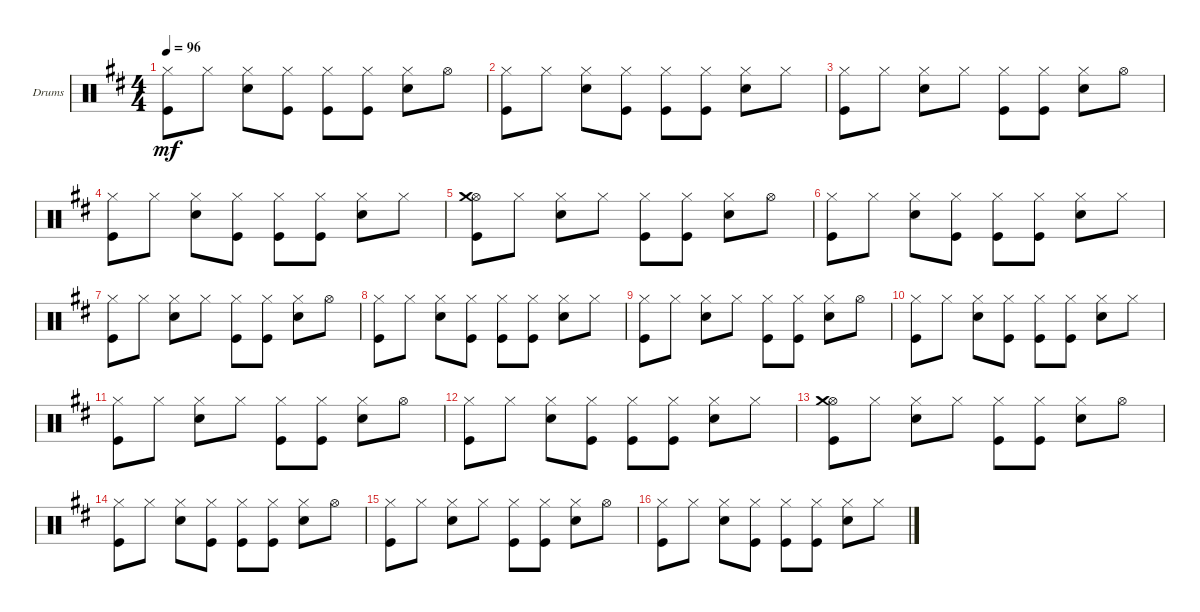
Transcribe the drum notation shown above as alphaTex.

\defaultSystemsLayout 4
\bracketExtendMode groupsimilarinstruments
\firstSystemTrackNameOrientation horizontal
\otherSystemsTrackNameOrientation horizontal
\track ("Drumkit" "Drums") {instrument percussion}
\staff {score}
\articulation defaults
\ts (4 4)
\tempo 96
\clef neutral
\ks d
("Kick (hit)" "Hi-Hat (closed)").8{dy mf} "Hi-Hat (closed)".8 ("Hi-Hat (closed)" "Snare (hit) 2").8 ("Hi-Hat (closed)" "Kick (hit)").8 ("Hi-Hat (closed)" "Kick (hit)").8 ("Hi-Hat (closed)" "Kick (hit)").8 ("Hi-Hat (closed)" "Snare (hit) 2").8 "Hi-Hat (open)".8 |
("Hi-Hat (closed)" "Kick (hit)").8 "Hi-Hat (closed)".8 ("Hi-Hat (closed)" "Snare (hit) 2").8 ("Hi-Hat (closed)" "Kick (hit)").8 ("Hi-Hat (closed)" "Kick (hit)").8 ("Hi-Hat (closed)" "Kick (hit)").8 ("Hi-Hat (closed)" "Snare (hit) 2").8 "Hi-Hat (closed)".8 |
("Hi-Hat (closed)" "Kick (hit)").8 "Hi-Hat (closed)".8 ("Hi-Hat (closed)" "Snare (hit) 2").8 "Hi-Hat (closed)".8 ("Hi-Hat (closed)" "Kick (hit)").8 ("Hi-Hat (closed)" "Kick (hit)").8 ("Hi-Hat (closed)" "Snare (hit) 2").8 "Hi-Hat (open)".8 |
("Kick (hit)" "Hi-Hat (closed)").8 "Hi-Hat (closed)".8 ("Hi-Hat (closed)" "Snare (hit) 2").8 ("Hi-Hat (closed)" "Kick (hit)").8 ("Kick (hit)" "Hi-Hat (closed)").8 ("Kick (hit)" "Hi-Hat (closed)").8 ("Hi-Hat (closed)" "Snare (hit) 2").8 "Hi-Hat (closed)".8 |
("Kick (hit)" "Hi-Hat (open)" "Crash medium (hit)").8 "Hi-Hat (closed)".8 ("Hi-Hat (closed)" "Snare (hit) 2").8 "Hi-Hat (closed)".8 ("Hi-Hat (closed)" "Kick (hit)").8 ("Hi-Hat (closed)" "Kick (hit)").8 ("Hi-Hat (closed)" "Snare (hit) 2").8 "Hi-Hat (open)".8 |
("Hi-Hat (closed)" "Kick (hit)").8 "Hi-Hat (closed)".8 ("Hi-Hat (closed)" "Snare (hit) 2").8 ("Hi-Hat (closed)" "Kick (hit)").8 ("Hi-Hat (closed)" "Kick (hit)").8 ("Hi-Hat (closed)" "Kick (hit)").8 ("Hi-Hat (closed)" "Snare (hit) 2").8 "Hi-Hat (closed)".8 |
("Hi-Hat (closed)" "Kick (hit)").8 "Hi-Hat (closed)".8 ("Hi-Hat (closed)" "Snare (hit) 2").8 "Hi-Hat (closed)".8 ("Hi-Hat (closed)" "Kick (hit)").8 ("Hi-Hat (closed)" "Kick (hit)").8 ("Hi-Hat (closed)" "Snare (hit) 2").8 "Hi-Hat (open)".8 |
("Kick (hit)" "Hi-Hat (closed)").8 "Hi-Hat (closed)".8 ("Hi-Hat (closed)" "Snare (hit) 2").8 ("Hi-Hat (closed)" "Kick (hit)").8 ("Kick (hit)" "Hi-Hat (closed)").8 ("Kick (hit)" "Hi-Hat (closed)").8 ("Hi-Hat (closed)" "Snare (hit) 2").8 "Hi-Hat (closed)".8 |
("Kick (hit)" "Hi-Hat (closed)").8 "Hi-Hat (closed)".8 ("Hi-Hat (closed)" "Snare (hit) 2").8 "Hi-Hat (closed)".8 ("Hi-Hat (closed)" "Kick (hit)").8 ("Hi-Hat (closed)" "Kick (hit)").8 ("Hi-Hat (closed)" "Snare (hit) 2").8 "Hi-Hat (open)".8 |
("Hi-Hat (closed)" "Kick (hit)").8 "Hi-Hat (closed)".8 ("Hi-Hat (closed)" "Snare (hit) 2").8 ("Hi-Hat (closed)" "Kick (hit)").8 ("Hi-Hat (closed)" "Kick (hit)").8 ("Hi-Hat (closed)" "Kick (hit)").8 ("Hi-Hat (closed)" "Snare (hit) 2").8 "Hi-Hat (closed)".8 |
("Hi-Hat (closed)" "Kick (hit)").8 "Hi-Hat (closed)".8 ("Hi-Hat (closed)" "Snare (hit) 2").8 "Hi-Hat (closed)".8 ("Hi-Hat (closed)" "Kick (hit)").8 ("Hi-Hat (closed)" "Kick (hit)").8 ("Hi-Hat (closed)" "Snare (hit) 2").8 "Hi-Hat (open)".8 |
("Kick (hit)" "Hi-Hat (closed)").8 "Hi-Hat (closed)".8 ("Hi-Hat (closed)" "Snare (hit) 2").8 ("Hi-Hat (closed)" "Kick (hit)").8 ("Kick (hit)" "Hi-Hat (closed)").8 ("Kick (hit)" "Hi-Hat (closed)").8 ("Hi-Hat (closed)" "Snare (hit) 2").8 "Hi-Hat (closed)".8 |
("Kick (hit)" "Hi-Hat (open)" "Crash medium (hit)").8 "Hi-Hat (closed)".8 ("Hi-Hat (closed)" "Snare (hit) 2").8 "Hi-Hat (closed)".8 ("Hi-Hat (closed)" "Kick (hit)").8 ("Hi-Hat (closed)" "Kick (hit)").8 ("Hi-Hat (closed)" "Snare (hit) 2").8 "Hi-Hat (open)".8 |
("Hi-Hat (closed)" "Kick (hit)").8 "Hi-Hat (closed)".8 ("Hi-Hat (closed)" "Snare (hit) 2").8 ("Hi-Hat (closed)" "Kick (hit)").8 ("Hi-Hat (closed)" "Kick (hit)").8 ("Hi-Hat (closed)" "Kick (hit)").8 ("Hi-Hat (closed)" "Snare (hit) 2").8 "Hi-Hat (open)".8 |
("Hi-Hat (closed)" "Kick (hit)").8 "Hi-Hat (closed)".8 ("Hi-Hat (closed)" "Snare (hit) 2").8 "Hi-Hat (closed)".8 ("Hi-Hat (closed)" "Kick (hit)").8 ("Hi-Hat (closed)" "Kick (hit)").8 ("Hi-Hat (closed)" "Snare (hit) 2").8 "Hi-Hat (open)".8 |
("Kick (hit)" "Hi-Hat (closed)").8 "Hi-Hat (closed)".8 ("Hi-Hat (closed)" "Snare (hit) 2").8 ("Hi-Hat (closed)" "Kick (hit)").8 ("Kick (hit)" "Hi-Hat (closed)").8 ("Kick (hit)" "Hi-Hat (closed)").8 ("Hi-Hat (closed)" "Snare (hit) 2").8 "Hi-Hat (closed)".8
